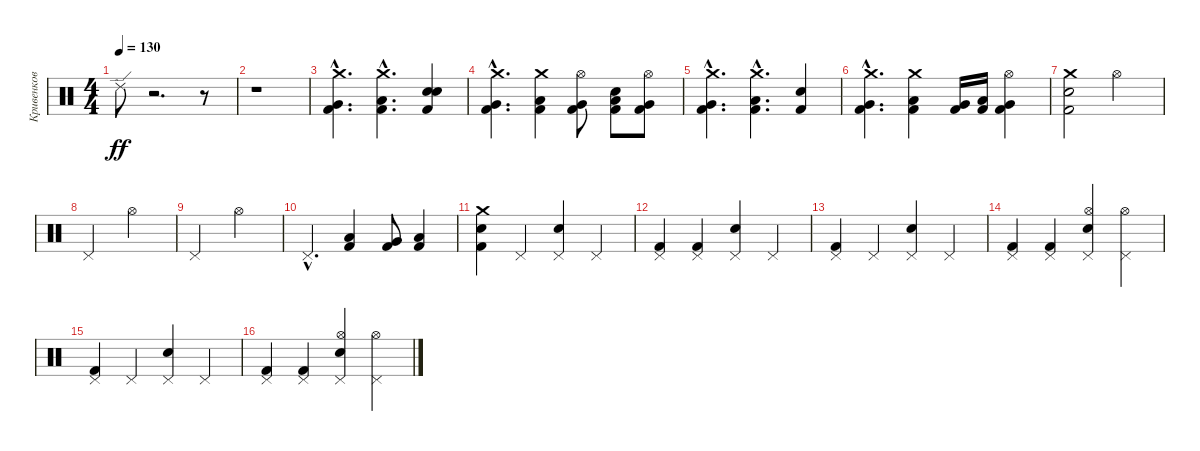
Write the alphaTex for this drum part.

\track ("Кривенков Дмитрий" "Кривенков ") {instrument percussion}
\staff {score}
\articulation defaults
\ts (4 4)
\tempo 130
\clef neutral
\ks c "Ride (edge) 2".8{dy ff}
r.2{d} r.8 |
r.1 |
("Crash medium (hit)"{hac} "Very Low Tom (hit)"{hac} "Kick (hit) 2"{hac}).4{d} ("Crash medium (hit)"{hac} "Low Floor Tom (hit)"{hac} "Kick (hit) 2"{hac}).4{d} ("Snare (hit) 2" "Electric Snare (hit)" "Kick (hit) 2").4 |
("Crash medium (hit)"{hac} "Very Low Tom (hit)"{hac} "Kick (hit) 2"{hac}).4{d} ("Crash medium (hit)" "Low Floor Tom (hit)" "Kick (hit) 2").4 ("Hi-Hat (open)" "Kick (hit) 2" "Very Low Tom (hit)").8 ("Electric Snare (hit)" "Kick (hit) 2" "Low Floor Tom (hit)").8 ("Hi-Hat (open)" "Kick (hit) 2" "Very Low Tom (hit)").8 |
("Crash medium (hit)"{hac} "Very Low Tom (hit)"{hac} "Kick (hit) 2"{hac}).4{d} ("Crash medium (hit)"{hac} "Low Floor Tom (hit)"{hac} "Kick (hit) 2"{hac}).4{d} ("Electric Snare (hit)" "Kick (hit) 2").4 |
("Crash medium (hit)"{hac} "Very Low Tom (hit)"{hac} "Kick (hit) 2"{hac}).4{d} ("Crash medium (hit)" "Low Floor Tom (hit)" "Kick (hit) 2").4 ("Kick (hit) 2" "Very Low Tom (hit)").16 ("Kick (hit) 2" "Low Floor Tom (hit)").16 ("Hi-Hat (open)" "Kick (hit) 2" "Very Low Tom (hit)").4 |
("Kick (hit) 2" "Electric Snare (hit)" "Crash medium (hit)").2 "Hi-Hat (open)".2 |
"Pedal Hi-Hat (hit)".2 "Hi-Hat (open)".2 |
"Pedal Hi-Hat (hit)".2 "Hi-Hat (open)".2 |
"Pedal Hi-Hat (hit)"{hac}.4{d} ("Low Tom (hit)" "Kick (hit) 2").4 ("Very Low Tom (hit)" "Kick (hit) 2").8 ("Low Floor Tom (hit)" "Kick (hit) 2").4 |
("Kick (hit) 2" "Electric Snare (hit)" "Crash medium (hit)").4 "Pedal Hi-Hat (hit)".4 ("Pedal Hi-Hat (hit)" "Electric Snare (hit)").4 "Pedal Hi-Hat (hit)".4 |
("Kick (hit) 2" "Pedal Hi-Hat (hit)").4 ("Kick (hit) 2" "Pedal Hi-Hat (hit)").4 ("Pedal Hi-Hat (hit)" "Electric Snare (hit)").4 "Pedal Hi-Hat (hit)".4 |
("Kick (hit) 2" "Pedal Hi-Hat (hit)").4 "Pedal Hi-Hat (hit)".4 ("Pedal Hi-Hat (hit)" "Electric Snare (hit)").4 "Pedal Hi-Hat (hit)".4 |
("Kick (hit) 2" "Pedal Hi-Hat (hit)").4 ("Kick (hit) 2" "Pedal Hi-Hat (hit)").4 ("Pedal Hi-Hat (hit)" "Electric Snare (hit)" "Hi-Hat (open)").4 ("Pedal Hi-Hat (hit)" "Hi-Hat (open)").4 |
("Kick (hit) 2" "Pedal Hi-Hat (hit)").4 "Pedal Hi-Hat (hit)".4 ("Pedal Hi-Hat (hit)" "Electric Snare (hit)").4 "Pedal Hi-Hat (hit)".4 |
("Kick (hit) 2" "Pedal Hi-Hat (hit)").4 ("Kick (hit) 2" "Pedal Hi-Hat (hit)").4 ("Pedal Hi-Hat (hit)" "Electric Snare (hit)" "Hi-Hat (open)").4 ("Pedal Hi-Hat (hit)" "Hi-Hat (open)").4
